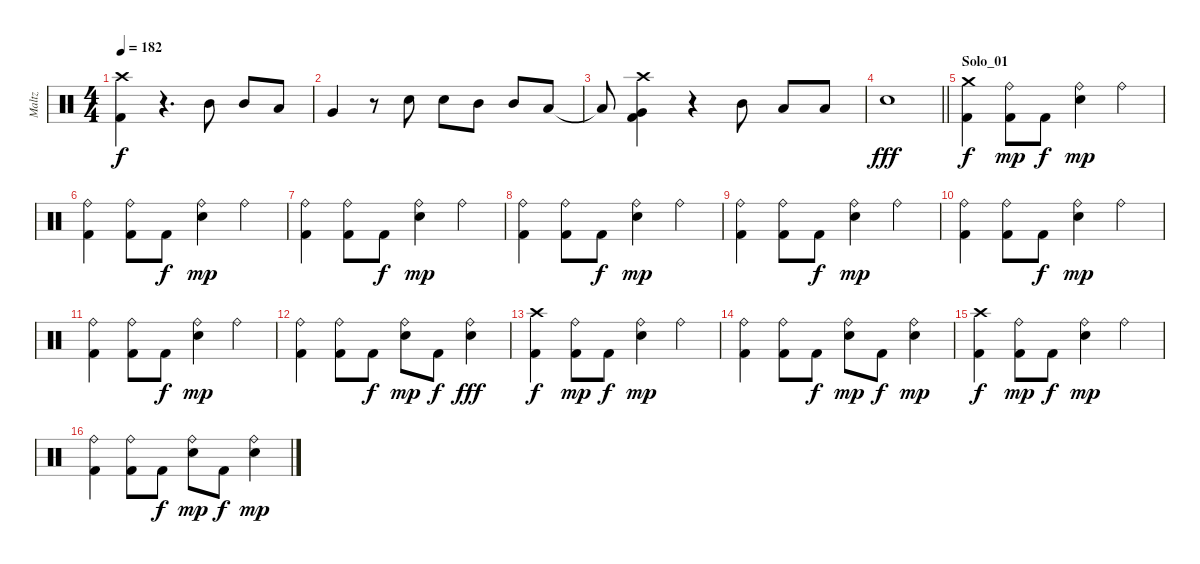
\track ("Maltz" "Maltz") {instrument percussion}
\staff {score}
\articulation defaults
\ts (4 4)
\tempo 182
\clef neutral
\ks c
("Crash high (hit)" "Kick (hit) 2").4{dy f} r.4{d} "Mid Tom (hit)".8 "Mid Tom (hit)".8 "Low Tom (hit)".8 |
"Very Low Tom (hit)".4 r.8 "Electric Snare (hit)".8 "Electric Snare (hit)".8 "Mid Tom (hit)".8 "Mid Tom (hit)".8 "Low Tom (hit)".8 |
"Low Floor Tom (hit)"{t}.8 ("Crash high (hit)" "Very Low Tom (hit)" "Kick (hit) 2").4 r.4 "Mid Tom (hit)".8 "Low Tom (hit)".8 "Low Floor Tom (hit)".8 |
\barLineRight lightlight "Electric Snare (hit)".1{dy fff}
|
\section ("" "Solo_01")
("Crash medium (hit)" "Kick (hit) 2").4{dy f} ("Ride (bell)" "Kick (hit) 2").8{dy mp} "Kick (hit) 2".8{dy f} ("Ride (bell)" "Electric Snare (hit)").4{dy mp} "Ride (bell)".4 |
("Ride (bell)" "Kick (hit) 2").4 ("Ride (bell)" "Kick (hit) 2").8 "Kick (hit) 2".8{dy f} ("Ride (bell)" "Electric Snare (hit)").4{dy mp} "Ride (bell)".4 |
("Ride (bell)" "Kick (hit) 2").4 ("Ride (bell)" "Kick (hit) 2").8 "Kick (hit) 2".8{dy f} ("Ride (bell)" "Electric Snare (hit)").4{dy mp} "Ride (bell)".4 |
("Ride (bell)" "Kick (hit) 2").4 ("Ride (bell)" "Kick (hit) 2").8 "Kick (hit) 2".8{dy f} ("Ride (bell)" "Electric Snare (hit)").4{dy mp} "Ride (bell)".4 |
("Ride (bell)" "Kick (hit) 2").4 ("Ride (bell)" "Kick (hit) 2").8 "Kick (hit) 2".8{dy f} ("Ride (bell)" "Electric Snare (hit)").4{dy mp} "Ride (bell)".4 |
("Ride (bell)" "Kick (hit) 2").4 ("Ride (bell)" "Kick (hit) 2").8 "Kick (hit) 2".8{dy f} ("Ride (bell)" "Electric Snare (hit)").4{dy mp} "Ride (bell)".4 |
("Ride (bell)" "Kick (hit) 2").4 ("Ride (bell)" "Kick (hit) 2").8 "Kick (hit) 2".8{dy f} ("Ride (bell)" "Electric Snare (hit)").4{dy mp} "Ride (bell)".4 |
("Ride (bell)" "Kick (hit) 2").4 ("Ride (bell)" "Kick (hit) 2").8 "Kick (hit) 2".8{dy f} ("Ride (bell)" "Electric Snare (hit)").8{dy mp} "Kick (hit) 2".8{dy f} ("Ride (bell)" "Electric Snare (hit)").4{dy fff} |
("Crash high (hit)" "Kick (hit) 2").4{dy f} ("Ride (bell)" "Kick (hit) 2").8{dy mp} "Kick (hit) 2".8{dy f} ("Ride (bell)" "Electric Snare (hit)").4{dy mp} "Ride (bell)".4 |
("Ride (bell)" "Kick (hit) 2").4 ("Ride (bell)" "Kick (hit) 2").8 "Kick (hit) 2".8{dy f} ("Ride (bell)" "Electric Snare (hit)").8{dy mp} "Kick (hit) 2".8{dy f} ("Ride (bell)" "Electric Snare (hit)").4{dy mp} |
("Crash high (hit)" "Kick (hit) 2").4{dy f} ("Ride (bell)" "Kick (hit) 2").8{dy mp} "Kick (hit) 2".8{dy f} ("Ride (bell)" "Electric Snare (hit)").4{dy mp} "Ride (bell)".4 |
("Ride (bell)" "Kick (hit) 2").4 ("Ride (bell)" "Kick (hit) 2").8 "Kick (hit) 2".8{dy f} ("Ride (bell)" "Electric Snare (hit)").8{dy mp} "Kick (hit) 2".8{dy f} ("Ride (bell)" "Electric Snare (hit)").4{dy mp}
